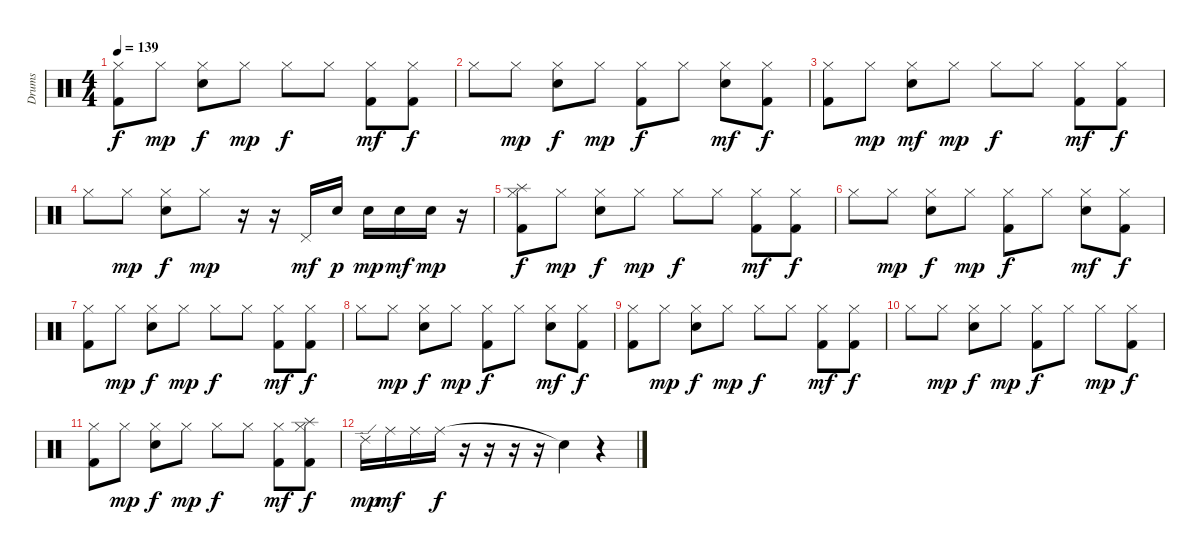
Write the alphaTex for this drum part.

\track ("Drums" "Drums") {instrument percussion}
\staff {score}
\articulation defaults
\ts (4 4)
\tempo 139
\clef neutral
\ks c
("Hi-Hat (closed)" "Kick (hit) 2").8{dy f} "Hi-Hat (closed)".8{dy mp} ("Hi-Hat (closed)" "Snare (hit) 2").8{dy f} "Hi-Hat (closed)".8{dy mp} "Hi-Hat (closed)".8{dy f} "Hi-Hat (closed)".8 ("Hi-Hat (closed)" "Kick (hit) 2").8{dy mf} ("Hi-Hat (closed)" "Kick (hit) 2").8{dy f} |
"Hi-Hat (closed)".8 "Hi-Hat (closed)".8{dy mp} ("Hi-Hat (closed)" "Snare (hit) 2").8{dy f} "Hi-Hat (closed)".8{dy mp} ("Hi-Hat (closed)" "Kick (hit) 2").8{dy f} "Hi-Hat (closed)".8 ("Hi-Hat (closed)" "Snare (hit) 2").8{dy mf} ("Hi-Hat (closed)" "Kick (hit) 2").8{dy f} |
("Hi-Hat (closed)" "Kick (hit) 2").8 "Hi-Hat (closed)".8{dy mp} ("Hi-Hat (closed)" "Snare (hit) 2").8{dy mf} "Hi-Hat (closed)".8{dy mp} "Hi-Hat (closed)".8{dy f} "Hi-Hat (closed)".8 ("Hi-Hat (closed)" "Kick (hit) 2").8{dy mf} ("Hi-Hat (closed)" "Kick (hit) 2").8{dy f} |
"Hi-Hat (closed)".8 "Hi-Hat (closed)".8{dy mp} ("Hi-Hat (closed)" "Snare (hit) 2").8{dy f} "Hi-Hat (closed)".8{dy mp} r.16 r.16 "Pedal Hi-Hat (hit)".16{dy mf} "Snare (hit) 2".16{dy p} "Snare (hit) 2".16{dy mp} "Snare (hit) 2".16{dy mf} "Snare (hit) 2".16{dy mp} r.16 |
("Splash (hit)" "Hi-Hat (closed)" "Kick (hit) 2").8{dy f} "Hi-Hat (closed)".8{dy mp} ("Hi-Hat (closed)" "Snare (hit) 2").8{dy f} "Hi-Hat (closed)".8{dy mp} "Hi-Hat (closed)".8{dy f} "Hi-Hat (closed)".8 ("Hi-Hat (closed)" "Kick (hit) 2").8{dy mf} ("Hi-Hat (closed)" "Kick (hit) 2").8{dy f} |
"Hi-Hat (closed)".8 "Hi-Hat (closed)".8{dy mp} ("Hi-Hat (closed)" "Snare (hit) 2").8{dy f} "Hi-Hat (closed)".8{dy mp} ("Hi-Hat (closed)" "Kick (hit) 2").8{dy f} "Hi-Hat (closed)".8 ("Hi-Hat (closed)" "Snare (hit) 2").8{dy mf} ("Hi-Hat (closed)" "Kick (hit) 2").8{dy f} |
("Hi-Hat (closed)" "Kick (hit) 2").8 "Hi-Hat (closed)".8{dy mp} ("Hi-Hat (closed)" "Snare (hit) 2").8{dy f} "Hi-Hat (closed)".8{dy mp} "Hi-Hat (closed)".8{dy f} "Hi-Hat (closed)".8 ("Hi-Hat (closed)" "Kick (hit) 2").8{dy mf} ("Hi-Hat (closed)" "Kick (hit) 2").8{dy f} |
"Hi-Hat (closed)".8 "Hi-Hat (closed)".8{dy mp} ("Hi-Hat (closed)" "Snare (hit) 2").8{dy f} "Hi-Hat (closed)".8{dy mp} ("Hi-Hat (closed)" "Kick (hit) 2").8{dy f} "Hi-Hat (closed)".8 ("Hi-Hat (closed)" "Snare (hit) 2").8{dy mf} ("Hi-Hat (closed)" "Kick (hit) 2").8{dy f} |
("Hi-Hat (closed)" "Kick (hit) 2").8 "Hi-Hat (closed)".8{dy mp} ("Hi-Hat (closed)" "Snare (hit) 2").8{dy f} "Hi-Hat (closed)".8{dy mp} "Hi-Hat (closed)".8{dy f} "Hi-Hat (closed)".8 ("Hi-Hat (closed)" "Kick (hit) 2").8{dy mf} ("Hi-Hat (closed)" "Kick (hit) 2").8{dy f} |
"Hi-Hat (closed)".8 "Hi-Hat (closed)".8{dy mp} ("Hi-Hat (closed)" "Snare (hit) 2").8{dy f} "Hi-Hat (closed)".8{dy mp} ("Hi-Hat (closed)" "Kick (hit) 2").8{dy f} "Hi-Hat (closed)".8 "Hi-Hat (closed)".8{dy mp} ("Hi-Hat (closed)" "Kick (hit) 2").8{dy f} |
("Hi-Hat (closed)" "Kick (hit) 2").8 "Hi-Hat (closed)".8{dy mp} ("Hi-Hat (closed)" "Snare (hit) 2").8{dy f} "Hi-Hat (closed)".8{dy mp} "Hi-Hat (closed)".8{dy f} "Hi-Hat (closed)".8 ("Hi-Hat (closed)" "Kick (hit) 2").8{dy mf} ("Splash (hit)" "Hi-Hat (closed)" "Kick (hit) 2").8{dy f} |
"Ride (edge) 2".16{dy mp} "Ride (middle)".16{dy mf} "Ride (middle)".16 "Ride (middle)".16{dy f} r.16 r.16 r.16 r.16 "Snare (hit)"{t}.4 r.4
